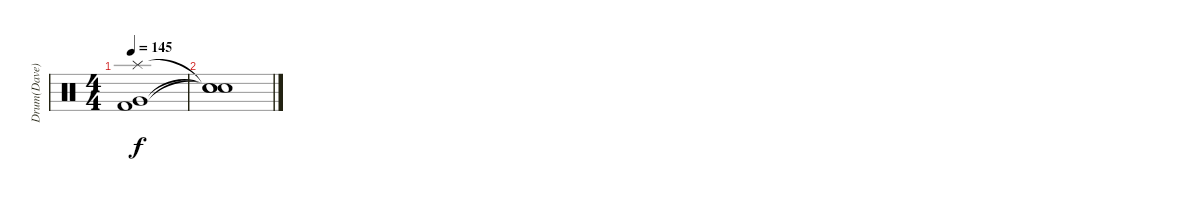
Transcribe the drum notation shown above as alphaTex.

\track ("Drum(Dave)" "Drum(Dave)") {instrument percussion}
\staff {score}
\articulation defaults
\ts (4 4)
\tempo 145
\clef neutral
\ks c
("Kick (hit) 2" "Very Low Tom (hit)" "Splash (hit)").1{dy f} |
("Snare (hit)"{t} "Snare (hit)"{t} "Snare (hit)"{t}).1
